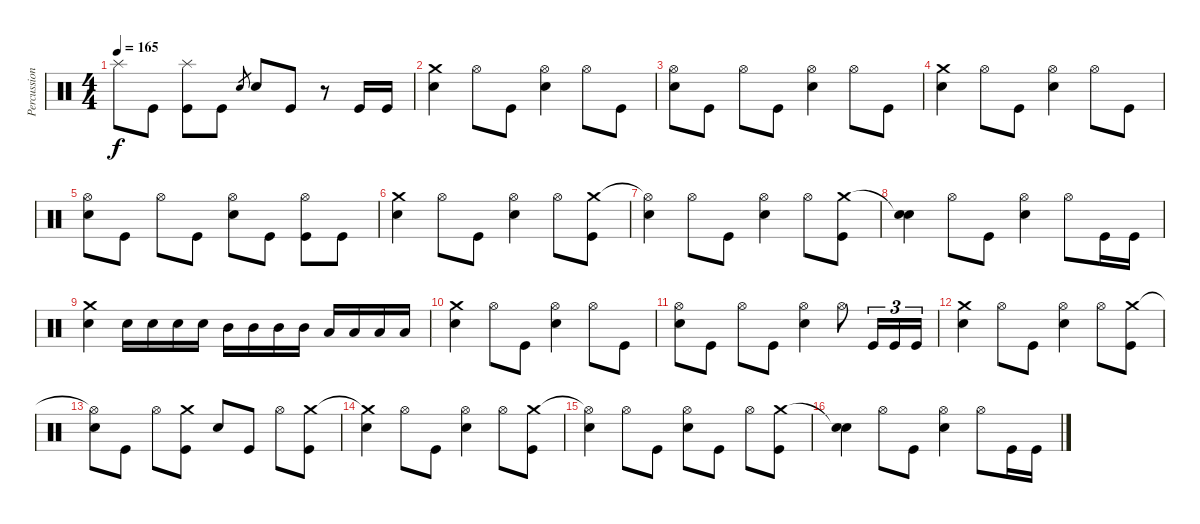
\track ("Percussions" "Percussion") {instrument percussion}
\staff {score}
\articulation defaults
\ts (4 4)
\tempo 165
\clef neutral
\ks c "Splash (hit)".8{dy f} "Kick (hit)".8
("Kick (hit)" "Splash (hit)").8 "Kick (hit)".8 "Electric Snare (hit)".8{gr} "Electric Snare (hit)".8 "Kick (hit)".8 r.8 "Kick (hit)".16 "Kick (hit)".16 |
("Electric Snare (hit)" "Crash medium (hit)").4 "Hi-Hat (open)".8 "Kick (hit)".8 ("Electric Snare (hit)" "Hi-Hat (open)").4 "Hi-Hat (open)".8 "Kick (hit)".8 |
("Electric Snare (hit)" "Hi-Hat (open)").8 "Kick (hit)".8 "Hi-Hat (open)".8 "Kick (hit)".8 ("Electric Snare (hit)" "Hi-Hat (open)").4 "Hi-Hat (open)".8 "Kick (hit)".8 |
("Electric Snare (hit)" "Crash medium (hit)").4 "Hi-Hat (open)".8 "Kick (hit)".8 ("Electric Snare (hit)" "Hi-Hat (open)").4 "Hi-Hat (open)".8 "Kick (hit)".8 |
("Electric Snare (hit)" "Hi-Hat (open)").8 "Kick (hit)".8 "Hi-Hat (open)".8 "Kick (hit)".8 ("Electric Snare (hit)" "Hi-Hat (open)").8 "Kick (hit)".8 ("Kick (hit)" "Hi-Hat (open)").8 "Kick (hit)".8 |
("Electric Snare (hit)" "Crash medium (hit)").4 "Hi-Hat (open)".8 "Kick (hit)".8 ("Electric Snare (hit)" "Hi-Hat (open)").4 "Hi-Hat (open)".8 ("Kick (hit)" "Crash medium (hit)").8 |
("Electric Snare (hit)" "Hi-Hat (open)"{t}).4 "Hi-Hat (open)".8 "Kick (hit)".8 ("Electric Snare (hit)" "Hi-Hat (open)").4 "Hi-Hat (open)".8 ("Kick (hit)" "Crash medium (hit)").8 |
("Electric Snare (hit)" "Snare (hit)"{t}).4 "Hi-Hat (open)".8 "Kick (hit)".8 ("Electric Snare (hit)" "Hi-Hat (open)").4 "Hi-Hat (open)".8 "Kick (hit)".16 "Kick (hit)".16 |
("Electric Snare (hit)" "Crash medium (hit)").4 "Electric Snare (hit)".16 "Electric Snare (hit)".16 "Electric Snare (hit)".16 "Electric Snare (hit)".16 "Mid Tom (hit)".16 "Mid Tom (hit)".16 "Mid Tom (hit)".16 "Mid Tom (hit)".16 "Low Tom (hit)".16 "Low Tom (hit)".16 "Low Tom (hit)".16 "Low Tom (hit)".16 |
("Electric Snare (hit)" "Crash medium (hit)").4 "Hi-Hat (open)".8 "Kick (hit)".8 ("Electric Snare (hit)" "Hi-Hat (open)").4 "Hi-Hat (open)".8 "Kick (hit)".8 |
("Electric Snare (hit)" "Hi-Hat (open)").8 "Kick (hit)".8 "Hi-Hat (open)".8 "Kick (hit)".8 ("Electric Snare (hit)" "Hi-Hat (open)").4 "Hi-Hat (open)".8 "Kick (hit)".16{tu (3 2)} "Kick (hit)".16{tu (3 2)} "Kick (hit)".16{tu (3 2)} |
("Electric Snare (hit)" "Crash medium (hit)").4 "Hi-Hat (open)".8 "Kick (hit)".8 ("Electric Snare (hit)" "Hi-Hat (open)").4 "Hi-Hat (open)".8 ("Kick (hit)" "Crash medium (hit)").8 |
("Electric Snare (hit)" "Hi-Hat (open)"{t}).8 "Kick (hit)".8 "Hi-Hat (open)".8 ("Kick (hit)" "Crash medium (hit)").8 "Electric Snare (hit)".8 "Kick (hit)".8 "Hi-Hat (open)".8 ("Kick (hit)" "Crash medium (hit)").8 |
("Electric Snare (hit)" "Crash medium (hit)"{t}).4 "Hi-Hat (open)".8 "Kick (hit)".8 ("Electric Snare (hit)" "Hi-Hat (open)").4 "Hi-Hat (open)".8 ("Kick (hit)" "Crash medium (hit)").8 |
("Electric Snare (hit)" "Hi-Hat (open)"{t}).4 "Hi-Hat (open)".8 "Kick (hit)".8 ("Electric Snare (hit)" "Hi-Hat (open)").8 "Kick (hit)".8 "Hi-Hat (open)".8 ("Kick (hit)" "Crash medium (hit)").8 |
("Electric Snare (hit)" "Snare (hit)"{t}).4 "Hi-Hat (open)".8 "Kick (hit)".8 ("Electric Snare (hit)" "Hi-Hat (open)").4 "Hi-Hat (open)".8 "Kick (hit)".16 "Kick (hit)".16
